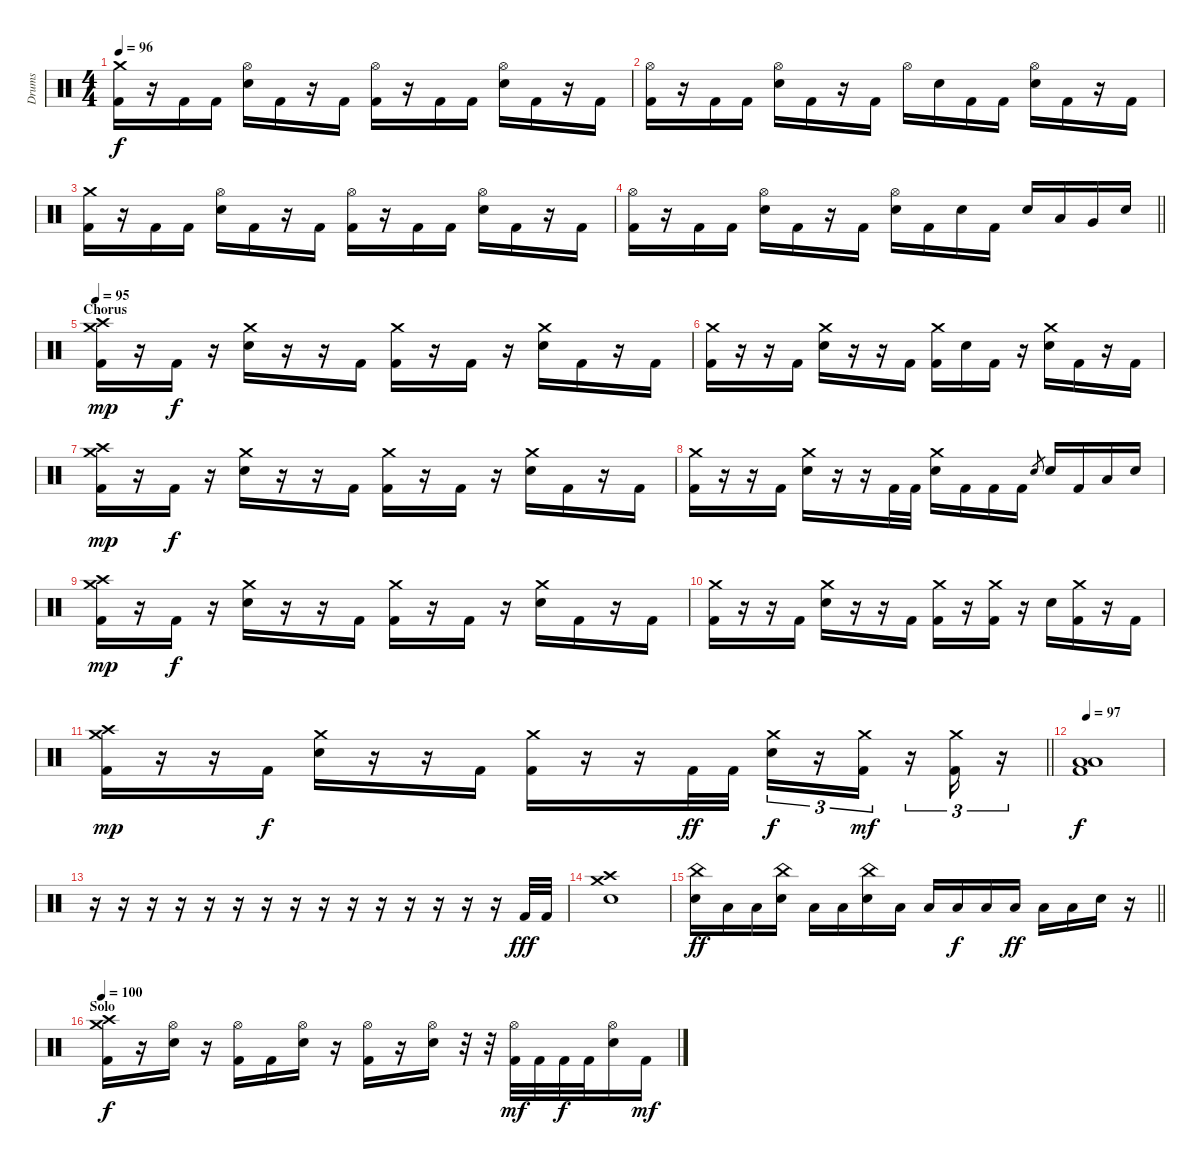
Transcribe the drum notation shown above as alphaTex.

\track ("Drums" "Drums") {instrument percussion}
\staff {score}
\articulation defaults
\ts (4 4)
\tempo 96
\clef neutral
\ks c
("Crash medium (hit)" "Kick (hit) 2").16{dy f} r.16 "Kick (hit) 2".16 "Kick (hit) 2".16 ("Hi-Hat (open)" "Electric Snare (hit)").16 "Kick (hit) 2".16 r.16 "Kick (hit) 2".16 ("Hi-Hat (open)" "Kick (hit) 2").16 r.16 "Kick (hit) 2".16 "Kick (hit) 2".16 ("Hi-Hat (open)" "Electric Snare (hit)").16 "Kick (hit) 2".16 r.16 "Kick (hit) 2".16 |
("Hi-Hat (open)" "Kick (hit) 2").16 r.16 "Kick (hit) 2".16 "Kick (hit) 2".16 ("Hi-Hat (open)" "Electric Snare (hit)").16 "Kick (hit) 2".16 r.16 "Kick (hit) 2".16 "Hi-Hat (open)".16 "Electric Snare (hit)".16 "Kick (hit) 2".16 "Kick (hit) 2".16 ("Hi-Hat (open)" "Electric Snare (hit)").16 "Kick (hit) 2".16 r.16 "Kick (hit) 2".16 |
("Crash medium (hit)" "Kick (hit) 2").16 r.16 "Kick (hit) 2".16 "Kick (hit) 2".16 ("Hi-Hat (open)" "Electric Snare (hit)").16 "Kick (hit) 2".16 r.16 "Kick (hit) 2".16 ("Hi-Hat (open)" "Kick (hit) 2").16 r.16 "Kick (hit) 2".16 "Kick (hit) 2".16 ("Hi-Hat (open)" "Electric Snare (hit)").16 "Kick (hit) 2".16 r.16 "Kick (hit) 2".16 |
\barLineRight lightlight
("Hi-Hat (open)" "Kick (hit) 2").16 r.16 "Kick (hit) 2".16 "Kick (hit) 2".16 ("Hi-Hat (open)" "Electric Snare (hit)").16 "Kick (hit) 2".16 r.16 "Kick (hit) 2".16 ("Hi-Hat (open)" "Electric Snare (hit)").16 "Kick (hit) 2".16 "Electric Snare (hit)".16 "Kick (hit) 2".16 "Electric Snare (hit)".16 "Low Tom (hit)".16 "Very Low Tom (hit)".16 "Electric Snare (hit)".16 |
\section ("" "Chorus")
\tempo 95
("Crash high (hit)" "Crash medium (hit)" "Kick (hit) 2").16{dy mp} r.16 "Kick (hit) 2".16{dy f} r.16 ("Crash medium (hit)" "Electric Snare (hit)").16 r.16 r.16 "Kick (hit) 2".16 ("Crash medium (hit)" "Kick (hit) 2").16 r.16 "Kick (hit) 2".16 r.16 ("Crash medium (hit)" "Electric Snare (hit)").16 "Kick (hit) 2".16 r.16 "Kick (hit) 2".16 |
("Crash medium (hit)" "Kick (hit) 2").16 r.16 r.16 "Kick (hit) 2".16 ("Crash medium (hit)" "Electric Snare (hit)").16 r.16 r.16 "Kick (hit) 2".16 ("Crash medium (hit)" "Kick (hit) 2").16 "Electric Snare (hit)".16 "Kick (hit) 2".16 r.16 ("Crash medium (hit)" "Electric Snare (hit)").16 "Kick (hit) 2".16 r.16 "Kick (hit) 2".16 |
("Crash high (hit)" "Crash medium (hit)" "Kick (hit) 2").16{dy mp} r.16 "Kick (hit) 2".16{dy f} r.16 ("Crash medium (hit)" "Electric Snare (hit)").16 r.16 r.16 "Kick (hit) 2".16 ("Crash medium (hit)" "Kick (hit) 2").16 r.16 "Kick (hit) 2".16 r.16 ("Crash medium (hit)" "Electric Snare (hit)").16 "Kick (hit) 2".16 r.16 "Kick (hit) 2".16 |
("Crash medium (hit)" "Kick (hit) 2").16 r.16 r.16 "Kick (hit) 2".16 ("Crash medium (hit)" "Electric Snare (hit)").16 r.16 r.16 "Kick (hit) 2".32 "Kick (hit) 2".32 ("Crash medium (hit)" "Electric Snare (hit)").16 "Kick (hit) 2".16 "Kick (hit) 2".16 "Kick (hit) 2".16 "Electric Snare (hit)".8{gr} "Electric Snare (hit)".16 "Kick (hit) 2".16 "Low Tom (hit)".16 "Electric Snare (hit)".16 |
("Crash high (hit)" "Crash medium (hit)" "Kick (hit) 2").16{dy mp} r.16 "Kick (hit) 2".16{dy f} r.16 ("Crash medium (hit)" "Electric Snare (hit)").16 r.16 r.16 "Kick (hit) 2".16 ("Crash medium (hit)" "Kick (hit) 2").16 r.16 "Kick (hit) 2".16 r.16 ("Crash medium (hit)" "Electric Snare (hit)").16 "Kick (hit) 2".16 r.16 "Kick (hit) 2".16 |
("Crash medium (hit)" "Kick (hit) 2").16 r.16 r.16 "Kick (hit) 2".16 ("Crash medium (hit)" "Electric Snare (hit)").16 r.16 r.16 "Kick (hit) 2".16 ("Crash medium (hit)" "Kick (hit) 2").16 r.16 ("Crash medium (hit)" "Kick (hit) 2").16 r.16 "Electric Snare (hit)".16 ("Crash medium (hit)" "Kick (hit) 2").16 r.16 "Kick (hit) 2".16 |
\barLineRight lightlight
("Crash high (hit)" "Crash medium (hit)" "Kick (hit) 2").16{dy mp} r.16 r.16 "Kick (hit) 2".16{dy f} ("Crash medium (hit)" "Electric Snare (hit)").16 r.16 r.16 "Kick (hit) 2".16 ("Crash medium (hit)" "Kick (hit) 2").16 r.16 r.16 "Kick (hit) 2".32{dy ff} "Kick (hit) 2".32 ("Crash medium (hit)" "Electric Snare (hit)").16{tu (3 2) dy f} r.16{tu (3 2)} ("Crash medium (hit)" "Kick (hit) 2").16{tu (3 2) dy mf} r.16{tu (3 2)} ("Crash medium (hit)" "Kick (hit) 2").16{tu (3 2)} r.16{tu (3 2)} |
\section ("" "")
\tempo 97
("Low Tom (hit)" "Low Floor Tom (hit)" "Kick (hit) 2").1{dy f} |
r.16 r.16 r.16 r.16 r.16 r.16 r.16 r.16 r.16 r.16 r.16 r.16 r.16 r.16 r.16 "Kick (hit) 2".32{dy fff} "Kick (hit) 2".32 |
("Crash high (hit)" "Crash medium (hit)" "Electric Snare (hit)").1 |
\barLineRight lightlight
("China (hit)" "Electric Snare (hit)").16{dy ff} "Low Tom (hit)".16 "Low Tom (hit)".16 ("China (hit)" "Electric Snare (hit)").16 "Low Tom (hit)".16 "Low Tom (hit)".16 ("China (hit)" "Electric Snare (hit)").16 "Low Tom (hit)".16 "Low Tom (hit)".16 "Low Tom (hit)".16{dy f} "Low Tom (hit)".16 "Low Tom (hit)".16{dy ff} "Low Tom (hit)".16 "Low Tom (hit)".16 "Electric Snare (hit)".16 r.16 |
\section ("" "Solo")
\tempo 100
("Crash high (hit)" "Crash medium (hit)" "Kick (hit) 2").16{dy f} r.16 ("Hi-Hat (open)" "Electric Snare (hit)").16 r.16 ("Hi-Hat (open)" "Kick (hit) 2").16 "Kick (hit) 2".16 ("Hi-Hat (open)" "Electric Snare (hit)").16 r.16 ("Hi-Hat (open)" "Kick (hit) 2").16 r.16 ("Hi-Hat (open)" "Electric Snare (hit)").16 r.32 r.32 ("Hi-Hat (open)" "Kick (hit) 2").32{dy mf} "Kick (hit) 2".32 "Kick (hit) 2".32{dy f} "Kick (hit) 2".32 ("Hi-Hat (open)" "Electric Snare (hit)").16 "Kick (hit) 2".16{dy mf}
